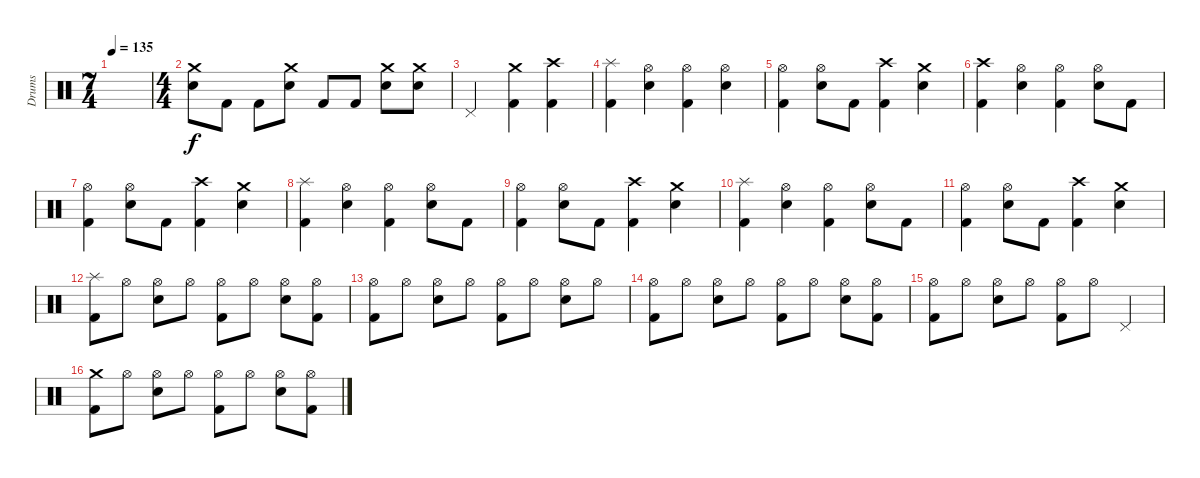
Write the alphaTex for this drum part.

\track ("Drums" "Drums") {instrument percussion}
\staff {score}
\articulation defaults
\ts (7 4)
\tempo 135
\clef neutral
\ks c
|
\ts (4 4)
("Crash medium (hit)" "Electric Snare (hit)").8 "Kick (hit) 2".8 "Kick (hit) 2".8 ("Crash medium (hit)" "Electric Snare (hit)").8 "Kick (hit) 2".8 "Kick (hit) 2".8 ("Crash medium (hit)" "Electric Snare (hit)").8 ("Crash medium (hit)" "Electric Snare (hit)").8 |
"Pedal Hi-Hat (hit)".2 ("Crash medium (hit)" "Kick (hit) 2").4 ("Crash high (hit)" "Kick (hit) 2").4 |
("Splash (hit)" "Kick (hit) 2").4 ("Hi-Hat (open)" "Electric Snare (hit)").4 ("Hi-Hat (open)" "Kick (hit) 2").4 ("Hi-Hat (open)" "Electric Snare (hit)").4 |
("Hi-Hat (open)" "Kick (hit) 2").4 ("Hi-Hat (open)" "Electric Snare (hit)").8 "Kick (hit) 2".8 ("Crash high (hit)" "Kick (hit) 2").4 ("Crash medium (hit)" "Electric Snare (hit)").4 |
("Crash high (hit)" "Kick (hit) 2").4 ("Hi-Hat (open)" "Electric Snare (hit)").4 ("Hi-Hat (open)" "Kick (hit) 2").4 ("Hi-Hat (open)" "Electric Snare (hit)").8 "Kick (hit) 2".8 |
("Hi-Hat (open)" "Kick (hit) 2").4 ("Hi-Hat (open)" "Electric Snare (hit)").8 "Kick (hit) 2".8 ("Crash high (hit)" "Kick (hit) 2").4 ("Crash medium (hit)" "Electric Snare (hit)").4 |
("Splash (hit)" "Kick (hit) 2").4 ("Hi-Hat (open)" "Electric Snare (hit)").4 ("Hi-Hat (open)" "Kick (hit) 2").4 ("Hi-Hat (open)" "Electric Snare (hit)").8 "Kick (hit) 2".8 |
("Hi-Hat (open)" "Kick (hit) 2").4 ("Hi-Hat (open)" "Electric Snare (hit)").8 "Kick (hit) 2".8 ("Crash high (hit)" "Kick (hit) 2").4 ("Crash medium (hit)" "Electric Snare (hit)").4 |
("Splash (hit)" "Kick (hit) 2").4 ("Hi-Hat (open)" "Electric Snare (hit)").4 ("Hi-Hat (open)" "Kick (hit) 2").4 ("Hi-Hat (open)" "Electric Snare (hit)").8 "Kick (hit) 2".8 |
("Hi-Hat (open)" "Kick (hit) 2").4 ("Hi-Hat (open)" "Electric Snare (hit)").8 "Kick (hit) 2".8 ("Crash high (hit)" "Kick (hit) 2").4 ("Crash medium (hit)" "Electric Snare (hit)").4 |
("Splash (hit)" "Kick (hit) 2").8 "Hi-Hat (open)".8 ("Hi-Hat (open)" "Electric Snare (hit)").8 "Hi-Hat (open)".8 ("Hi-Hat (open)" "Kick (hit) 2").8 "Hi-Hat (open)".8 ("Hi-Hat (open)" "Electric Snare (hit)").8 ("Hi-Hat (open)" "Kick (hit) 2").8 |
("Hi-Hat (open)" "Kick (hit) 2").8 "Hi-Hat (open)".8 ("Hi-Hat (open)" "Electric Snare (hit)").8 "Hi-Hat (open)".8 ("Hi-Hat (open)" "Kick (hit) 2").8 "Hi-Hat (open)".8 ("Hi-Hat (open)" "Electric Snare (hit)").8 "Hi-Hat (open)".8 |
("Hi-Hat (open)" "Kick (hit) 2").8 "Hi-Hat (open)".8 ("Hi-Hat (open)" "Electric Snare (hit)").8 "Hi-Hat (open)".8 ("Hi-Hat (open)" "Kick (hit) 2").8 "Hi-Hat (open)".8 ("Hi-Hat (open)" "Electric Snare (hit)").8 ("Hi-Hat (open)" "Kick (hit) 2").8 |
("Hi-Hat (open)" "Kick (hit) 2").8 "Hi-Hat (open)".8 ("Hi-Hat (open)" "Electric Snare (hit)").8 "Hi-Hat (open)".8 ("Hi-Hat (open)" "Kick (hit) 2").8 "Hi-Hat (open)".8 "Pedal Hi-Hat (hit)".4 |
("Crash medium (hit)" "Kick (hit) 2").8 "Hi-Hat (open)".8 ("Hi-Hat (open)" "Electric Snare (hit)").8 "Hi-Hat (open)".8 ("Hi-Hat (open)" "Kick (hit) 2").8 "Hi-Hat (open)".8 ("Hi-Hat (open)" "Electric Snare (hit)").8 ("Hi-Hat (open)" "Kick (hit) 2").8
